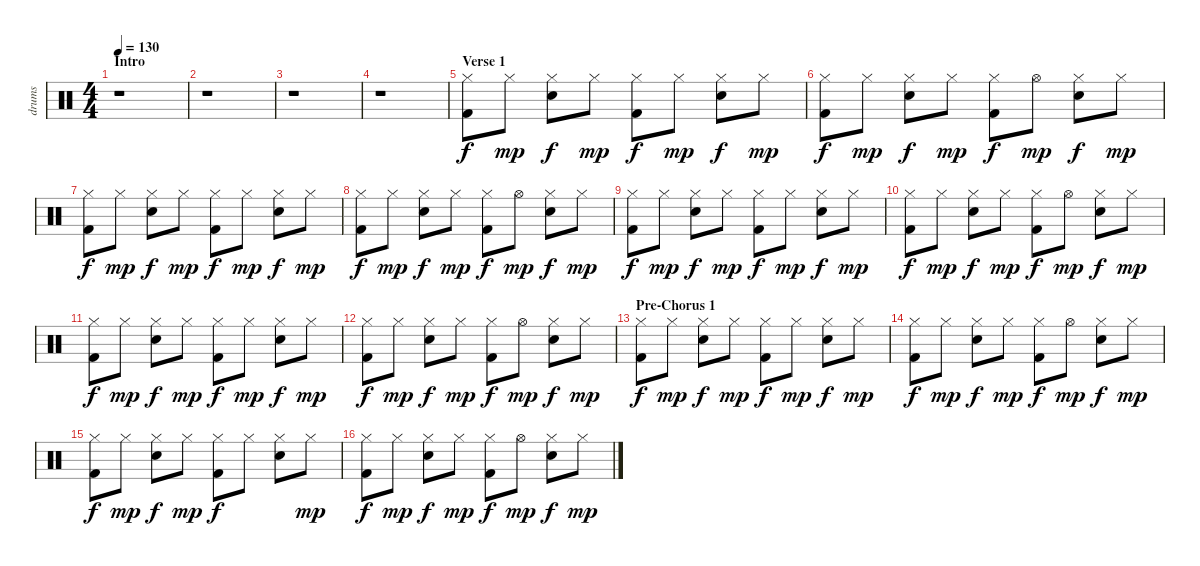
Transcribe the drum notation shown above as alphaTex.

\track ("drums" "drums") {instrument percussion}
\staff {score}
\articulation defaults
\ts (4 4)
\section ("" "Intro")
\tempo 130
\clef neutral
\ks c
r.1{dy f} |
r.1 |
r.1 |
r.1 |
\section ("" "Verse 1")
("Hi-Hat (closed)" "Kick (hit) 2").8 "Hi-Hat (closed)".8{dy mp} ("Hi-Hat (closed)" "Electric Snare (hit)").8{dy f} "Hi-Hat (closed)".8{dy mp} ("Hi-Hat (closed)" "Kick (hit) 2").8{dy f} "Hi-Hat (closed)".8{dy mp} ("Hi-Hat (closed)" "Electric Snare (hit)").8{dy f} "Hi-Hat (closed)".8{dy mp} |
("Hi-Hat (closed)" "Kick (hit) 2").8{dy f} "Hi-Hat (closed)".8{dy mp} ("Hi-Hat (closed)" "Electric Snare (hit)").8{dy f} "Hi-Hat (closed)".8{dy mp} ("Hi-Hat (closed)" "Kick (hit) 2").8{dy f} "Hi-Hat (open)".8{dy mp} ("Hi-Hat (closed)" "Electric Snare (hit)").8{dy f} "Hi-Hat (closed)".8{dy mp} |
("Hi-Hat (closed)" "Kick (hit) 2").8{dy f} "Hi-Hat (closed)".8{dy mp} ("Hi-Hat (closed)" "Electric Snare (hit)").8{dy f} "Hi-Hat (closed)".8{dy mp} ("Hi-Hat (closed)" "Kick (hit) 2").8{dy f} "Hi-Hat (closed)".8{dy mp} ("Hi-Hat (closed)" "Electric Snare (hit)").8{dy f} "Hi-Hat (closed)".8{dy mp} |
("Hi-Hat (closed)" "Kick (hit) 2").8{dy f} "Hi-Hat (closed)".8{dy mp} ("Hi-Hat (closed)" "Electric Snare (hit)").8{dy f} "Hi-Hat (closed)".8{dy mp} ("Hi-Hat (closed)" "Kick (hit) 2").8{dy f} "Hi-Hat (open)".8{dy mp} ("Hi-Hat (closed)" "Electric Snare (hit)").8{dy f} "Hi-Hat (closed)".8{dy mp} |
("Hi-Hat (closed)" "Kick (hit) 2").8{dy f} "Hi-Hat (closed)".8{dy mp} ("Hi-Hat (closed)" "Electric Snare (hit)").8{dy f} "Hi-Hat (closed)".8{dy mp} ("Hi-Hat (closed)" "Kick (hit) 2").8{dy f} "Hi-Hat (closed)".8{dy mp} ("Hi-Hat (closed)" "Electric Snare (hit)").8{dy f} "Hi-Hat (closed)".8{dy mp} |
("Hi-Hat (closed)" "Kick (hit) 2").8{dy f} "Hi-Hat (closed)".8{dy mp} ("Hi-Hat (closed)" "Electric Snare (hit)").8{dy f} "Hi-Hat (closed)".8{dy mp} ("Hi-Hat (closed)" "Kick (hit) 2").8{dy f} "Hi-Hat (open)".8{dy mp} ("Hi-Hat (closed)" "Electric Snare (hit)").8{dy f} "Hi-Hat (closed)".8{dy mp} |
("Hi-Hat (closed)" "Kick (hit) 2").8{dy f} "Hi-Hat (closed)".8{dy mp} ("Hi-Hat (closed)" "Electric Snare (hit)").8{dy f} "Hi-Hat (closed)".8{dy mp} ("Hi-Hat (closed)" "Kick (hit) 2").8{dy f} "Hi-Hat (closed)".8{dy mp} ("Hi-Hat (closed)" "Electric Snare (hit)").8{dy f} "Hi-Hat (closed)".8{dy mp} |
("Hi-Hat (closed)" "Kick (hit) 2").8{dy f} "Hi-Hat (closed)".8{dy mp} ("Hi-Hat (closed)" "Electric Snare (hit)").8{dy f} "Hi-Hat (closed)".8{dy mp} ("Hi-Hat (closed)" "Kick (hit) 2").8{dy f} "Hi-Hat (open)".8{dy mp} ("Hi-Hat (closed)" "Electric Snare (hit)").8{dy f} "Hi-Hat (closed)".8{dy mp} |
\section ("" "Pre-Chorus 1")
("Hi-Hat (closed)" "Kick (hit) 2").8{dy f} "Hi-Hat (closed)".8{dy mp} ("Hi-Hat (closed)" "Electric Snare (hit)").8{dy f} "Hi-Hat (closed)".8{dy mp} ("Hi-Hat (closed)" "Kick (hit) 2").8{dy f} "Hi-Hat (closed)".8{dy mp} ("Hi-Hat (closed)" "Electric Snare (hit)").8{dy f} "Hi-Hat (closed)".8{dy mp} |
("Hi-Hat (closed)" "Kick (hit) 2").8{dy f} "Hi-Hat (closed)".8{dy mp} ("Hi-Hat (closed)" "Electric Snare (hit)").8{dy f} "Hi-Hat (closed)".8{dy mp} ("Hi-Hat (closed)" "Kick (hit) 2").8{dy f} "Hi-Hat (open)".8{dy mp} ("Hi-Hat (closed)" "Electric Snare (hit)").8{dy f} "Hi-Hat (closed)".8{dy mp} |
("Hi-Hat (closed)" "Kick (hit) 2").8{dy f} "Hi-Hat (closed)".8{dy mp} ("Hi-Hat (closed)" "Electric Snare (hit)").8{dy f} "Hi-Hat (closed)".8{dy mp} ("Hi-Hat (closed)" "Kick (hit) 2").8{dy f} "Hi-Hat (closed)".8 ("Hi-Hat (closed)" "Electric Snare (hit)").8 "Hi-Hat (closed)".8{dy mp} |
("Hi-Hat (closed)" "Kick (hit) 2").8{dy f} "Hi-Hat (closed)".8{dy mp} ("Hi-Hat (closed)" "Electric Snare (hit)").8{dy f} "Hi-Hat (closed)".8{dy mp} ("Hi-Hat (closed)" "Kick (hit) 2").8{dy f} "Hi-Hat (open)".8{dy mp} ("Hi-Hat (closed)" "Electric Snare (hit)").8{dy f} "Hi-Hat (closed)".8{dy mp}
